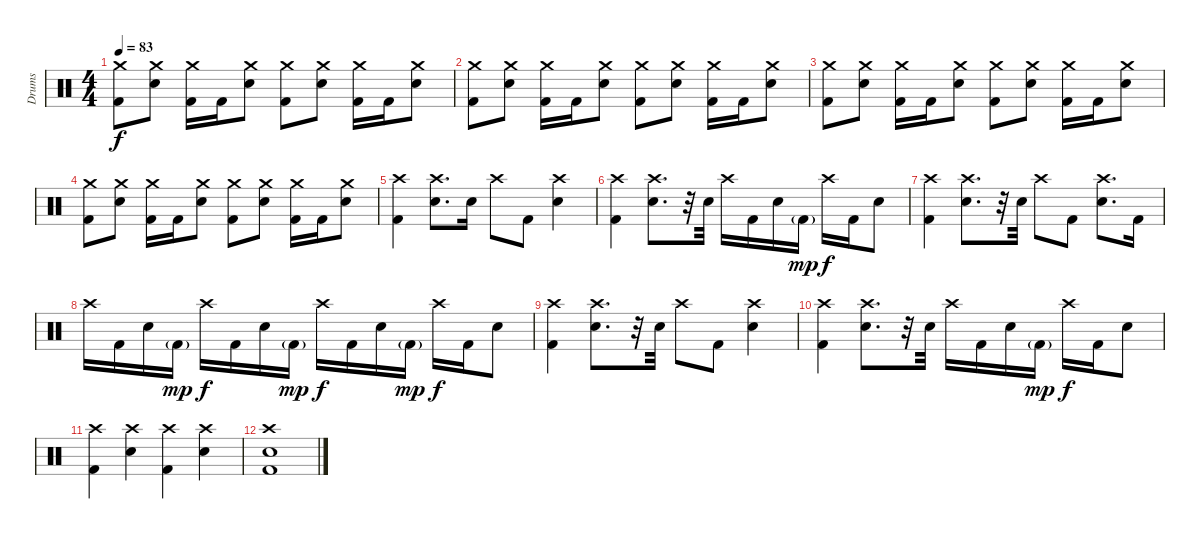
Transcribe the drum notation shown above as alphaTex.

\track ("Drums" "Drums") {instrument percussion}
\staff {score}
\articulation defaults
\ts (4 4)
\tempo 83
\clef neutral
\ks c
("Crash medium (hit)" "Kick (hit) 2").8{dy f} ("Crash medium (hit)" "Snare (hit) 2").8 ("Crash medium (hit)" "Kick (hit) 2").16 "Kick (hit) 2".16 ("Crash medium (hit)" "Snare (hit) 2").8 ("Crash medium (hit)" "Kick (hit) 2").8 ("Crash medium (hit)" "Snare (hit) 2").8 ("Crash medium (hit)" "Kick (hit) 2").16 "Kick (hit) 2".16 ("Crash medium (hit)" "Snare (hit) 2").8 |
("Crash medium (hit)" "Kick (hit) 2").8 ("Crash medium (hit)" "Snare (hit) 2").8 ("Crash medium (hit)" "Kick (hit) 2").16 "Kick (hit) 2".16 ("Crash medium (hit)" "Snare (hit) 2").8 ("Crash medium (hit)" "Kick (hit) 2").8 ("Crash medium (hit)" "Snare (hit) 2").8 ("Crash medium (hit)" "Kick (hit) 2").16 "Kick (hit) 2".16 ("Crash medium (hit)" "Snare (hit) 2").8 |
("Crash medium (hit)" "Kick (hit) 2").8 ("Crash medium (hit)" "Snare (hit) 2").8 ("Crash medium (hit)" "Kick (hit) 2").16 "Kick (hit) 2".16 ("Crash medium (hit)" "Snare (hit) 2").8 ("Crash medium (hit)" "Kick (hit) 2").8 ("Crash medium (hit)" "Snare (hit) 2").8 ("Crash medium (hit)" "Kick (hit) 2").16 "Kick (hit) 2".16 ("Crash medium (hit)" "Snare (hit) 2").8 |
("Crash medium (hit)" "Kick (hit) 2").8 ("Crash medium (hit)" "Snare (hit) 2").8 ("Crash medium (hit)" "Kick (hit) 2").16 "Kick (hit) 2".16 ("Crash medium (hit)" "Snare (hit) 2").8 ("Crash medium (hit)" "Kick (hit) 2").8 ("Crash medium (hit)" "Snare (hit) 2").8 ("Crash medium (hit)" "Kick (hit) 2").16 "Kick (hit) 2".16 ("Crash medium (hit)" "Snare (hit) 2").8 |
("Crash high (hit)" "Kick (hit) 2").4 ("Crash high (hit)" "Snare (hit) 2").8{d} "Snare (hit) 2".16 "Crash high (hit)".8 "Kick (hit) 2".8 ("Crash high (hit)" "Snare (hit) 2").4 |
("Crash high (hit)" "Kick (hit) 2").4 ("Crash high (hit)" "Snare (hit) 2").8{d} r.32 "Snare (hit) 2".32 "Crash high (hit)".16 "Kick (hit) 2".16 "Snare (hit) 2".16 "Kick (hit) 2"{g}.16{dy mp} "Crash high (hit)".16{dy f} "Kick (hit) 2".16 "Snare (hit) 2".8 |
("Crash high (hit)" "Kick (hit) 2").4 ("Crash high (hit)" "Snare (hit) 2").8{d} r.32 "Snare (hit) 2".32 "Crash high (hit)".8 "Kick (hit) 2".8 ("Crash high (hit)" "Snare (hit) 2").8{d} "Kick (hit) 2".16 |
"Crash high (hit)".16 "Kick (hit) 2".16 "Snare (hit) 2".16 "Kick (hit) 2"{g}.16{dy mp} "Crash high (hit)".16{dy f} "Kick (hit) 2".16 "Snare (hit) 2".16 "Kick (hit) 2"{g}.16{dy mp} "Crash high (hit)".16{dy f} "Kick (hit) 2".16 "Snare (hit) 2".16 "Kick (hit) 2"{g}.16{dy mp} "Crash high (hit)".16{dy f} "Kick (hit) 2".16 "Snare (hit) 2".8 |
("Crash high (hit)" "Kick (hit) 2").4 ("Crash high (hit)" "Snare (hit) 2").8{d} r.32 "Snare (hit) 2".32 "Crash high (hit)".8 "Kick (hit) 2".8 ("Crash high (hit)" "Snare (hit) 2").4 |
("Crash high (hit)" "Kick (hit) 2").4 ("Crash high (hit)" "Snare (hit) 2").8{d} r.32 "Snare (hit) 2".32 "Crash high (hit)".16 "Kick (hit) 2".16 "Snare (hit) 2".16 "Kick (hit) 2"{g}.16{dy mp} "Crash high (hit)".16{dy f} "Kick (hit) 2".16 "Snare (hit) 2".8 |
("Crash high (hit)" "Kick (hit) 2").4 ("Crash high (hit)" "Snare (hit) 2").4 ("Crash high (hit)" "Kick (hit) 2").4 ("Crash high (hit)" "Snare (hit) 2").4 |
("Crash high (hit)" "Snare (hit) 2" "Kick (hit) 2").1
